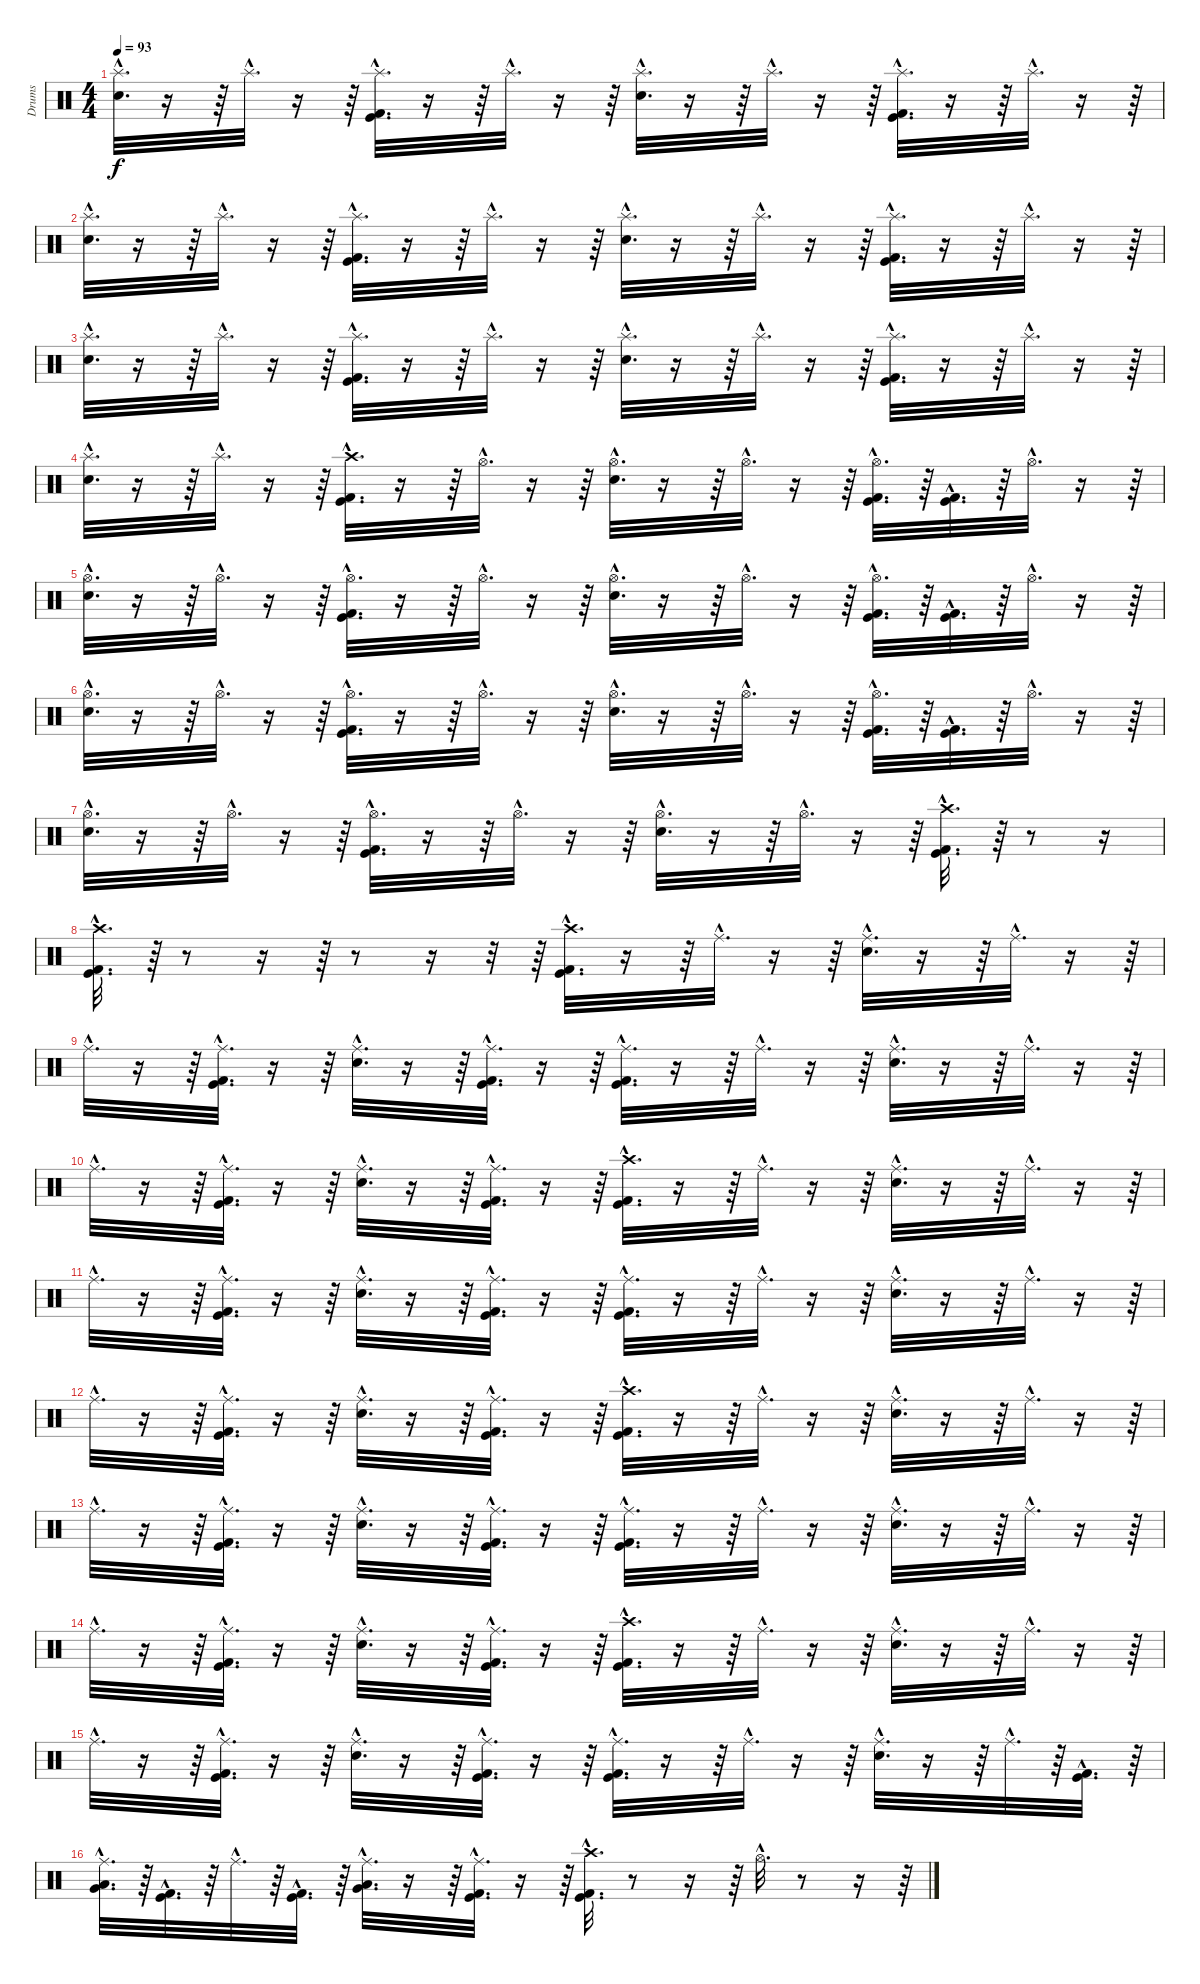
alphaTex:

\track ("Drums" "Drums") {instrument percussion}
\staff {score}
\articulation defaults
\ts (4 4)
\tempo 93
\clef neutral
\ks c
("Snare (hit) 2"{hac} "Splash (hit)"{hac}).32{d dy f} r.16 r.64 "Splash (hit)"{hac}.32{d} r.16 r.64 ("Kick (hit)"{hac} "Kick (hit) 2"{hac} "Splash (hit)"{hac}).32{d} r.16 r.64 "Splash (hit)"{hac}.32{d} r.16 r.64 ("Snare (hit) 2"{hac} "Splash (hit)"{hac}).32{d} r.16 r.64 "Splash (hit)"{hac}.32{d} r.16 r.64 ("Kick (hit)"{hac} "Kick (hit) 2"{hac} "Splash (hit)"{hac}).32{d} r.16 r.64 "Splash (hit)"{hac}.32{d} r.16 r.64 |
("Snare (hit) 2"{hac} "Splash (hit)"{hac}).32{d} r.16 r.64 "Splash (hit)"{hac}.32{d} r.16 r.64 ("Kick (hit)"{hac} "Kick (hit) 2"{hac} "Splash (hit)"{hac}).32{d} r.16 r.64 "Splash (hit)"{hac}.32{d} r.16 r.64 ("Splash (hit)"{hac} "Snare (hit) 2"{hac}).32{d} r.16 r.64 "Splash (hit)"{hac}.32{d} r.16 r.64 ("Kick (hit)"{hac} "Splash (hit)"{hac} "Kick (hit) 2"{hac}).32{d} r.16 r.64 "Splash (hit)"{hac}.32{d} r.16 r.64 |
("Splash (hit)"{hac} "Snare (hit) 2"{hac}).32{d} r.16 r.64 "Splash (hit)"{hac}.32{d} r.16 r.64 ("Kick (hit)"{hac} "Splash (hit)"{hac} "Kick (hit) 2"{hac}).32{d} r.16 r.64 "Splash (hit)"{hac}.32{d} r.16 r.64 ("Splash (hit)"{hac} "Snare (hit) 2"{hac}).32{d} r.16 r.64 "Splash (hit)"{hac}.32{d} r.16 r.64 ("Kick (hit)"{hac} "Splash (hit)"{hac} "Kick (hit) 2"{hac}).32{d} r.16 r.64 "Splash (hit)"{hac}.32{d} r.16 r.64 |
("Splash (hit)"{hac} "Snare (hit) 2"{hac}).32{d} r.16 r.64 "Splash (hit)"{hac}.32{d} r.16 r.64 ("Kick (hit)"{hac} "Crash high (hit)"{hac} "Kick (hit) 2"{hac}).32{d} r.16 r.64 "Hi-Hat (open)"{hac}.32{d} r.16 r.64 ("Hi-Hat (open)"{hac} "Snare (hit) 2"{hac}).32{d} r.16 r.64 "Hi-Hat (open)"{hac}.32{d} r.16 r.64 ("Kick (hit)"{hac} "Hi-Hat (open)"{hac} "Kick (hit) 2"{hac}).32{d} r.64 ("Kick (hit)"{hac} "Kick (hit) 2"{hac}).32{d} r.64 "Hi-Hat (open)"{hac}.32{d} r.16 r.64 |
("Hi-Hat (open)"{hac} "Snare (hit) 2"{hac}).32{d} r.16 r.64 "Hi-Hat (open)"{hac}.32{d} r.16 r.64 ("Kick (hit)"{hac} "Hi-Hat (open)"{hac} "Kick (hit) 2"{hac}).32{d} r.16 r.64 "Hi-Hat (open)"{hac}.32{d} r.16 r.64 ("Hi-Hat (open)"{hac} "Snare (hit) 2"{hac}).32{d} r.16 r.64 "Hi-Hat (open)"{hac}.32{d} r.16 r.64 ("Kick (hit)"{hac} "Hi-Hat (open)"{hac} "Kick (hit) 2"{hac}).32{d} r.64 ("Kick (hit)"{hac} "Kick (hit) 2"{hac}).32{d} r.64 "Hi-Hat (open)"{hac}.32{d} r.16 r.64 |
("Hi-Hat (open)"{hac} "Snare (hit) 2"{hac}).32{d} r.16 r.64 "Hi-Hat (open)"{hac}.32{d} r.16 r.64 ("Kick (hit)"{hac} "Hi-Hat (open)"{hac} "Kick (hit) 2"{hac}).32{d} r.16 r.64 "Hi-Hat (open)"{hac}.32{d} r.16 r.64 ("Hi-Hat (open)"{hac} "Snare (hit) 2"{hac}).32{d} r.16 r.64 "Hi-Hat (open)"{hac}.32{d} r.16 r.64 ("Kick (hit)"{hac} "Hi-Hat (open)"{hac} "Kick (hit) 2"{hac}).32{d} r.64 ("Kick (hit)"{hac} "Kick (hit) 2"{hac}).32{d} r.64 "Hi-Hat (open)"{hac}.32{d} r.16 r.64 |
("Hi-Hat (open)"{hac} "Snare (hit) 2"{hac}).32{d} r.16 r.64 "Hi-Hat (open)"{hac}.32{d} r.16 r.64 ("Kick (hit)"{hac} "Kick (hit) 2"{hac} "Hi-Hat (open)"{hac}).32{d} r.16 r.64 "Hi-Hat (open)"{hac}.32{d} r.16 r.64 ("Snare (hit) 2"{hac} "Hi-Hat (open)"{hac}).32{d} r.16 r.64 "Hi-Hat (open)"{hac}.32{d} r.16 r.64 ("Kick (hit)"{hac} "Crash high (hit)"{hac} "Kick (hit) 2"{hac}).32{d} r.64 r.8 r.16 |
("Kick (hit)"{hac} "Crash high (hit)"{hac} "Kick (hit) 2"{hac}).32{d} r.64 r.8 r.16 r.64 r.8 r.16 r.32 r.64 ("Kick (hit)"{hac} "Kick (hit) 2"{hac} "Crash high (hit)"{hac}).32{d} r.16 r.64 "Ride (middle)"{hac}.32{d} r.16 r.64 ("Ride (middle)"{hac} "Snare (hit) 2"{hac}).32{d} r.16 r.64 "Ride (middle)"{hac}.32{d} r.16 r.64 |
"Ride (middle)"{hac}.32{d} r.16 r.64 ("Kick (hit)"{hac} "Kick (hit) 2"{hac} "Ride (middle)"{hac}).32{d} r.16 r.64 ("Snare (hit) 2"{hac} "Ride (middle)"{hac}).32{d} r.16 r.64 ("Kick (hit)"{hac} "Kick (hit) 2"{hac} "Ride (middle)"{hac}).32{d} r.16 r.64 ("Kick (hit)"{hac} "Kick (hit) 2"{hac} "Ride (middle)"{hac}).32{d} r.16 r.64 "Ride (middle)"{hac}.32{d} r.16 r.64 ("Snare (hit) 2"{hac} "Ride (middle)"{hac}).32{d} r.16 r.64 "Ride (middle)"{hac}.32{d} r.16 r.64 |
"Ride (middle)"{hac}.32{d} r.16 r.64 ("Kick (hit)"{hac} "Kick (hit) 2"{hac} "Ride (middle)"{hac}).32{d} r.16 r.64 ("Snare (hit) 2"{hac} "Ride (middle)"{hac}).32{d} r.16 r.64 ("Kick (hit)"{hac} "Kick (hit) 2"{hac} "Ride (middle)"{hac}).32{d} r.16 r.64 ("Kick (hit)"{hac} "Crash high (hit)"{hac} "Kick (hit) 2"{hac}).32{d} r.16 r.64 "Ride (middle)"{hac}.32{d} r.16 r.64 ("Snare (hit) 2"{hac} "Ride (middle)"{hac}).32{d} r.16 r.64 "Ride (middle)"{hac}.32{d} r.16 r.64 |
"Ride (middle)"{hac}.32{d} r.16 r.64 ("Kick (hit)"{hac} "Kick (hit) 2"{hac} "Ride (middle)"{hac}).32{d} r.16 r.64 ("Snare (hit) 2"{hac} "Ride (middle)"{hac}).32{d} r.16 r.64 ("Kick (hit)"{hac} "Ride (middle)"{hac} "Kick (hit) 2"{hac}).32{d} r.16 r.64 ("Kick (hit)"{hac} "Ride (middle)"{hac} "Kick (hit) 2"{hac}).32{d} r.16 r.64 "Ride (middle)"{hac}.32{d} r.16 r.64 ("Ride (middle)"{hac} "Snare (hit) 2"{hac}).32{d} r.16 r.64 "Ride (middle)"{hac}.32{d} r.16 r.64 |
"Ride (middle)"{hac}.32{d} r.16 r.64 ("Kick (hit)"{hac} "Ride (middle)"{hac} "Kick (hit) 2"{hac}).32{d} r.16 r.64 ("Ride (middle)"{hac} "Snare (hit) 2"{hac}).32{d} r.16 r.64 ("Kick (hit)"{hac} "Ride (middle)"{hac} "Kick (hit) 2"{hac}).32{d} r.16 r.64 ("Kick (hit)"{hac} "Crash high (hit)"{hac} "Kick (hit) 2"{hac}).32{d} r.16 r.64 "Ride (middle)"{hac}.32{d} r.16 r.64 ("Snare (hit) 2"{hac} "Ride (middle)"{hac}).32{d} r.16 r.64 "Ride (middle)"{hac}.32{d} r.16 r.64 |
"Ride (middle)"{hac}.32{d} r.16 r.64 ("Kick (hit)"{hac} "Ride (middle)"{hac} "Kick (hit) 2"{hac}).32{d} r.16 r.64 ("Ride (middle)"{hac} "Snare (hit) 2"{hac}).32{d} r.16 r.64 ("Kick (hit)"{hac} "Ride (middle)"{hac} "Kick (hit) 2"{hac}).32{d} r.16 r.64 ("Kick (hit)"{hac} "Ride (middle)"{hac} "Kick (hit) 2"{hac}).32{d} r.16 r.64 "Ride (middle)"{hac}.32{d} r.16 r.64 ("Ride (middle)"{hac} "Snare (hit) 2"{hac}).32{d} r.16 r.64 "Ride (middle)"{hac}.32{d} r.16 r.64 |
"Ride (middle)"{hac}.32{d} r.16 r.64 ("Kick (hit)"{hac} "Ride (middle)"{hac} "Kick (hit) 2"{hac}).32{d} r.16 r.64 ("Ride (middle)"{hac} "Snare (hit) 2"{hac}).32{d} r.16 r.64 ("Kick (hit)"{hac} "Ride (middle)"{hac} "Kick (hit) 2"{hac}).32{d} r.16 r.64 ("Kick (hit)"{hac} "Crash high (hit)"{hac} "Kick (hit) 2"{hac}).32{d} r.16 r.64 "Ride (middle)"{hac}.32{d} r.16 r.64 ("Ride (middle)"{hac} "Snare (hit) 2"{hac}).32{d} r.16 r.64 "Ride (middle)"{hac}.32{d} r.16 r.64 |
"Ride (middle)"{hac}.32{d} r.16 r.64 ("Kick (hit)"{hac} "Ride (middle)"{hac} "Kick (hit) 2"{hac}).32{d} r.16 r.64 ("Ride (middle)"{hac} "Snare (hit) 2"{hac}).32{d} r.16 r.64 ("Kick (hit)"{hac} "Ride (middle)"{hac} "Kick (hit) 2"{hac}).32{d} r.16 r.64 ("Kick (hit)"{hac} "Ride (middle)"{hac} "Kick (hit) 2"{hac}).32{d} r.16 r.64 "Ride (middle)"{hac}.32{d} r.16 r.64 ("Snare (hit) 2"{hac} "Ride (middle)"{hac}).32{d} r.16 r.64 "Ride (middle)"{hac}.32{d} r.64 ("Kick (hit)"{hac} "Kick (hit) 2"{hac}).32{d} r.64 |
("Low Tom (hit)"{hac} "Very Low Tom (hit)"{hac} "Ride (middle)"{hac}).32{d} r.64 ("Kick (hit)"{hac} "Kick (hit) 2"{hac}).32{d} r.64 "Ride (middle)"{hac}.32{d} r.64 ("Kick (hit)"{hac} "Kick (hit) 2"{hac}).32{d} r.64 ("Low Tom (hit)"{hac} "Very Low Tom (hit)"{hac} "Ride (middle)"{hac}).32{d} r.16 r.64 ("Kick (hit)"{hac} "Ride (middle)"{hac} "Kick (hit) 2"{hac}).32{d} r.16 r.64 ("Kick (hit)"{hac} "Crash high (hit)"{hac} "Kick (hit) 2"{hac}).32{d} r.8 r.16 r.64 "Hi-Hat (open)"{hac}.32{d} r.8 r.16 r.64
